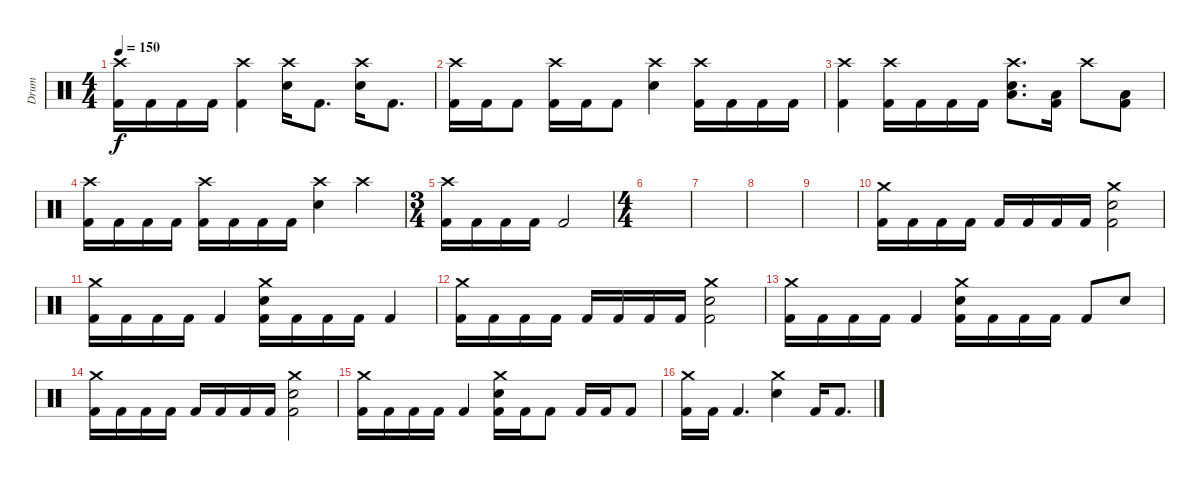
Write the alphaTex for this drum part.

\track ("Drum" "Drum") {instrument percussion}
\staff {score}
\articulation defaults
\ts (4 4)
\tempo 150
\clef neutral
\ks c
("Crash high (hit)" "Kick (hit) 2").16{dy f} "Kick (hit) 2".16 "Kick (hit) 2".16 "Kick (hit) 2".16 ("Crash high (hit)" "Kick (hit) 2").4 ("Crash high (hit)" "Electric Snare (hit)").16 "Kick (hit) 2".8{d} ("Crash high (hit)" "Electric Snare (hit)").16 "Kick (hit) 2".8{d} |
("Crash high (hit)" "Kick (hit) 2").16 "Kick (hit) 2".16 "Kick (hit) 2".8 ("Crash high (hit)" "Kick (hit) 2").16 "Kick (hit) 2".16 "Kick (hit) 2".8 ("Crash high (hit)" "Electric Snare (hit)").4 ("Crash high (hit)" "Kick (hit) 2").16 "Kick (hit) 2".16 "Kick (hit) 2".16 "Kick (hit) 2".16 |
("Crash high (hit)" "Kick (hit) 2").4 ("Crash high (hit)" "Kick (hit) 2").16 "Kick (hit) 2".16 "Kick (hit) 2".16 "Kick (hit) 2".16 ("Crash high (hit)" "Low Floor Tom (hit)" "Electric Snare (hit)").8{d} ("Low Floor Tom (hit)" "Kick (hit) 2").16 "Crash high (hit)".8 ("Low Floor Tom (hit)" "Kick (hit) 2").8 |
("Crash high (hit)" "Kick (hit) 2").16 "Kick (hit) 2".16 "Kick (hit) 2".16 "Kick (hit) 2".16 ("Crash high (hit)" "Kick (hit) 2").16 "Kick (hit) 2".16 "Kick (hit) 2".16 "Kick (hit) 2".16 ("Crash high (hit)" "Electric Snare (hit)").4 "Crash high (hit)".4 |
\ts (3 4)
("Crash high (hit)" "Kick (hit) 2").16 "Kick (hit) 2".16 "Kick (hit) 2".16 "Kick (hit) 2".16 "Kick (hit) 2".2 |
\ts (4 4)
|
|
|
|
("Crash medium (hit)" "Kick (hit) 2").16 "Kick (hit) 2".16 "Kick (hit) 2".16 "Kick (hit) 2".16 "Kick (hit) 2".16 "Kick (hit) 2".16 "Kick (hit) 2".16 "Kick (hit) 2".16 ("Crash medium (hit)" "Electric Snare (hit)" "Kick (hit) 2").2 |
("Crash medium (hit)" "Kick (hit) 2").16 "Kick (hit) 2".16 "Kick (hit) 2".16 "Kick (hit) 2".16 "Kick (hit) 2".4 ("Crash medium (hit)" "Electric Snare (hit)" "Kick (hit) 2").16 "Kick (hit) 2".16 "Kick (hit) 2".16 "Kick (hit) 2".16 "Kick (hit) 2".4 |
("Crash medium (hit)" "Kick (hit) 2").16 "Kick (hit) 2".16 "Kick (hit) 2".16 "Kick (hit) 2".16 "Kick (hit) 2".16 "Kick (hit) 2".16 "Kick (hit) 2".16 "Kick (hit) 2".16 ("Crash medium (hit)" "Electric Snare (hit)" "Kick (hit) 2").2 |
("Crash medium (hit)" "Kick (hit) 2").16 "Kick (hit) 2".16 "Kick (hit) 2".16 "Kick (hit) 2".16 "Kick (hit) 2".4 ("Crash medium (hit)" "Electric Snare (hit)" "Kick (hit) 2").16 "Kick (hit) 2".16 "Kick (hit) 2".16 "Kick (hit) 2".16 "Kick (hit) 2".8 "Electric Snare (hit)".8 |
("Crash medium (hit)" "Kick (hit) 2").16 "Kick (hit) 2".16 "Kick (hit) 2".16 "Kick (hit) 2".16 "Kick (hit) 2".16 "Kick (hit) 2".16 "Kick (hit) 2".16 "Kick (hit) 2".16 ("Crash medium (hit)" "Electric Snare (hit)" "Kick (hit) 2").2 |
("Crash medium (hit)" "Kick (hit) 2").16 "Kick (hit) 2".16 "Kick (hit) 2".16 "Kick (hit) 2".16 "Kick (hit) 2".4 ("Crash medium (hit)" "Electric Snare (hit)" "Kick (hit) 2").16 "Kick (hit) 2".16 "Kick (hit) 2".8 "Kick (hit) 2".16 "Kick (hit) 2".16 "Kick (hit) 2".8 |
("Crash medium (hit)" "Kick (hit) 2").16 "Kick (hit) 2".16 "Kick (hit) 2".4{d} ("Crash medium (hit)" "Electric Snare (hit)").4 "Kick (hit) 2".16 "Kick (hit) 2".8{d}
